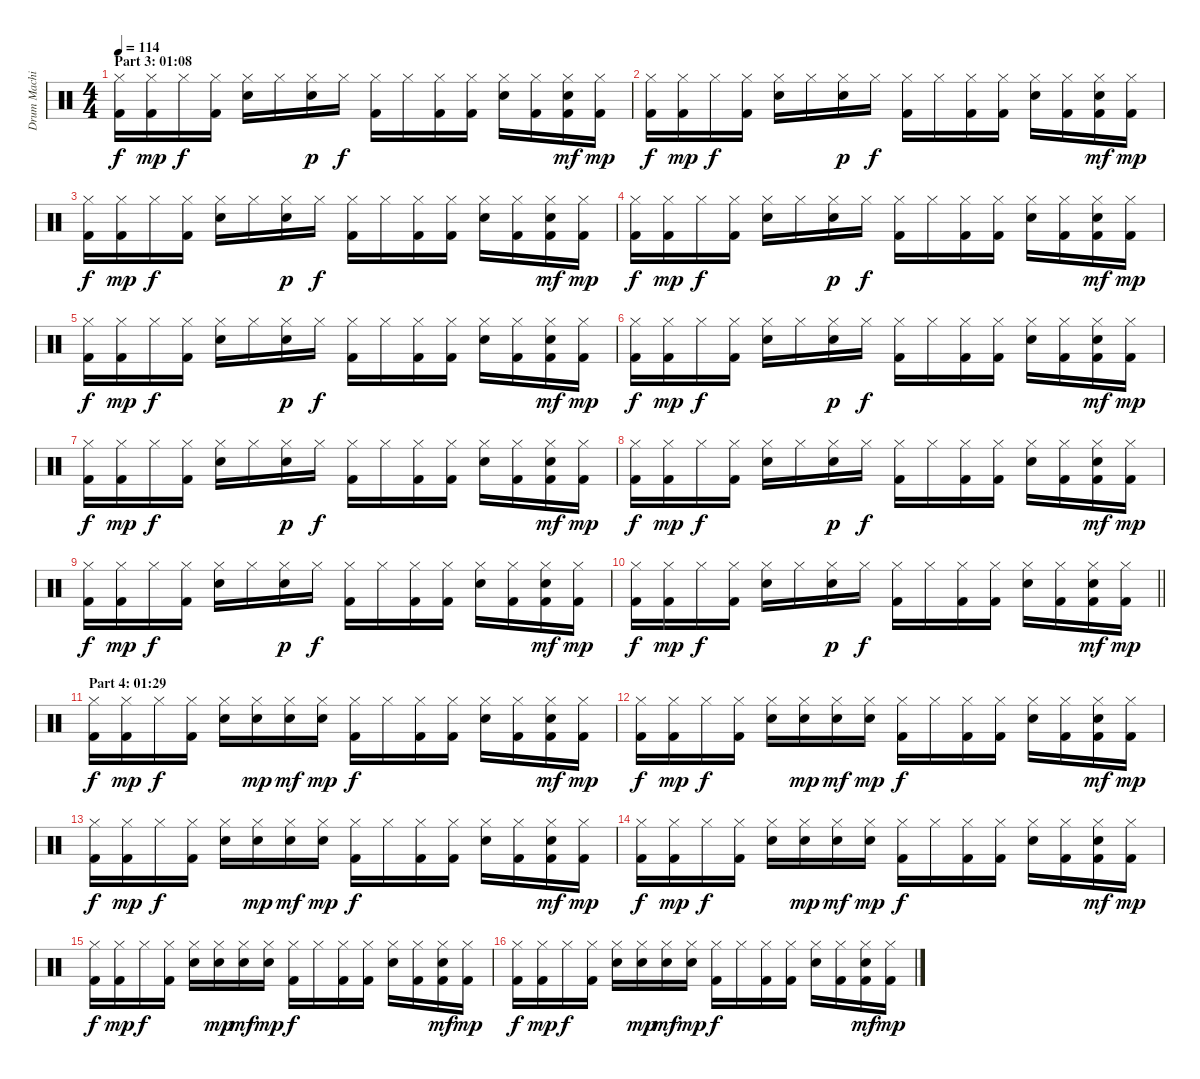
\track ("Drum Machine" "Drum Machi") {instrument percussion}
\staff {score}
\articulation defaults
\ts (4 4)
\section ("" "Part 3: 01:08")
\tempo 114
\clef neutral
\ks c
("Hi-Hat (closed)" "Kick (hit) 2").16{dy f} ("Hi-Hat (closed)" "Kick (hit) 2").16{dy mp} "Hi-Hat (closed)".16{dy f} ("Hi-Hat (closed)" "Kick (hit) 2").16 ("Hi-Hat (closed)" "Electric Snare (hit)").16 "Hi-Hat (closed)".16 ("Hi-Hat (closed)" "Electric Snare (hit)").16{dy p} "Hi-Hat (closed)".16{dy f} ("Hi-Hat (closed)" "Kick (hit) 2").16 "Hi-Hat (closed)".16 ("Hi-Hat (closed)" "Kick (hit) 2").16 ("Hi-Hat (closed)" "Kick (hit) 2").16 ("Hi-Hat (closed)" "Electric Snare (hit)").16 ("Hi-Hat (closed)" "Kick (hit) 2").16 ("Hi-Hat (closed)" "Electric Snare (hit)" "Kick (hit) 2").16{dy mf} ("Hi-Hat (closed)" "Kick (hit) 2").16{dy mp} |
("Hi-Hat (closed)" "Kick (hit) 2").16{dy f} ("Hi-Hat (closed)" "Kick (hit) 2").16{dy mp} "Hi-Hat (closed)".16{dy f} ("Hi-Hat (closed)" "Kick (hit) 2").16 ("Hi-Hat (closed)" "Electric Snare (hit)").16 "Hi-Hat (closed)".16 ("Hi-Hat (closed)" "Electric Snare (hit)").16{dy p} "Hi-Hat (closed)".16{dy f} ("Hi-Hat (closed)" "Kick (hit) 2").16 "Hi-Hat (closed)".16 ("Hi-Hat (closed)" "Kick (hit) 2").16 ("Hi-Hat (closed)" "Kick (hit) 2").16 ("Hi-Hat (closed)" "Electric Snare (hit)").16 ("Hi-Hat (closed)" "Kick (hit) 2").16 ("Hi-Hat (closed)" "Electric Snare (hit)" "Kick (hit) 2").16{dy mf} ("Hi-Hat (closed)" "Kick (hit) 2").16{dy mp} |
("Hi-Hat (closed)" "Kick (hit) 2").16{dy f} ("Hi-Hat (closed)" "Kick (hit) 2").16{dy mp} "Hi-Hat (closed)".16{dy f} ("Hi-Hat (closed)" "Kick (hit) 2").16 ("Hi-Hat (closed)" "Electric Snare (hit)").16 "Hi-Hat (closed)".16 ("Hi-Hat (closed)" "Electric Snare (hit)").16{dy p} "Hi-Hat (closed)".16{dy f} ("Hi-Hat (closed)" "Kick (hit) 2").16 "Hi-Hat (closed)".16 ("Hi-Hat (closed)" "Kick (hit) 2").16 ("Hi-Hat (closed)" "Kick (hit) 2").16 ("Hi-Hat (closed)" "Electric Snare (hit)").16 ("Hi-Hat (closed)" "Kick (hit) 2").16 ("Hi-Hat (closed)" "Electric Snare (hit)" "Kick (hit) 2").16{dy mf} ("Hi-Hat (closed)" "Kick (hit) 2").16{dy mp} |
("Hi-Hat (closed)" "Kick (hit) 2").16{dy f} ("Hi-Hat (closed)" "Kick (hit) 2").16{dy mp} "Hi-Hat (closed)".16{dy f} ("Hi-Hat (closed)" "Kick (hit) 2").16 ("Hi-Hat (closed)" "Electric Snare (hit)").16 "Hi-Hat (closed)".16 ("Hi-Hat (closed)" "Electric Snare (hit)").16{dy p} "Hi-Hat (closed)".16{dy f} ("Hi-Hat (closed)" "Kick (hit) 2").16 "Hi-Hat (closed)".16 ("Hi-Hat (closed)" "Kick (hit) 2").16 ("Hi-Hat (closed)" "Kick (hit) 2").16 ("Hi-Hat (closed)" "Electric Snare (hit)").16 ("Hi-Hat (closed)" "Kick (hit) 2").16 ("Hi-Hat (closed)" "Electric Snare (hit)" "Kick (hit) 2").16{dy mf} ("Hi-Hat (closed)" "Kick (hit) 2").16{dy mp} |
("Hi-Hat (closed)" "Kick (hit) 2").16{dy f} ("Hi-Hat (closed)" "Kick (hit) 2").16{dy mp} "Hi-Hat (closed)".16{dy f} ("Hi-Hat (closed)" "Kick (hit) 2").16 ("Hi-Hat (closed)" "Electric Snare (hit)").16 "Hi-Hat (closed)".16 ("Hi-Hat (closed)" "Electric Snare (hit)").16{dy p} "Hi-Hat (closed)".16{dy f} ("Hi-Hat (closed)" "Kick (hit) 2").16 "Hi-Hat (closed)".16 ("Hi-Hat (closed)" "Kick (hit) 2").16 ("Hi-Hat (closed)" "Kick (hit) 2").16 ("Hi-Hat (closed)" "Electric Snare (hit)").16 ("Hi-Hat (closed)" "Kick (hit) 2").16 ("Hi-Hat (closed)" "Electric Snare (hit)" "Kick (hit) 2").16{dy mf} ("Hi-Hat (closed)" "Kick (hit) 2").16{dy mp} |
("Hi-Hat (closed)" "Kick (hit) 2").16{dy f} ("Hi-Hat (closed)" "Kick (hit) 2").16{dy mp} "Hi-Hat (closed)".16{dy f} ("Hi-Hat (closed)" "Kick (hit) 2").16 ("Hi-Hat (closed)" "Electric Snare (hit)").16 "Hi-Hat (closed)".16 ("Hi-Hat (closed)" "Electric Snare (hit)").16{dy p} "Hi-Hat (closed)".16{dy f} ("Hi-Hat (closed)" "Kick (hit) 2").16 "Hi-Hat (closed)".16 ("Hi-Hat (closed)" "Kick (hit) 2").16 ("Hi-Hat (closed)" "Kick (hit) 2").16 ("Hi-Hat (closed)" "Electric Snare (hit)").16 ("Hi-Hat (closed)" "Kick (hit) 2").16 ("Hi-Hat (closed)" "Electric Snare (hit)" "Kick (hit) 2").16{dy mf} ("Hi-Hat (closed)" "Kick (hit) 2").16{dy mp} |
("Hi-Hat (closed)" "Kick (hit) 2").16{dy f} ("Hi-Hat (closed)" "Kick (hit) 2").16{dy mp} "Hi-Hat (closed)".16{dy f} ("Hi-Hat (closed)" "Kick (hit) 2").16 ("Hi-Hat (closed)" "Electric Snare (hit)").16 "Hi-Hat (closed)".16 ("Hi-Hat (closed)" "Electric Snare (hit)").16{dy p} "Hi-Hat (closed)".16{dy f} ("Hi-Hat (closed)" "Kick (hit) 2").16 "Hi-Hat (closed)".16 ("Hi-Hat (closed)" "Kick (hit) 2").16 ("Hi-Hat (closed)" "Kick (hit) 2").16 ("Hi-Hat (closed)" "Electric Snare (hit)").16 ("Hi-Hat (closed)" "Kick (hit) 2").16 ("Hi-Hat (closed)" "Electric Snare (hit)" "Kick (hit) 2").16{dy mf} ("Hi-Hat (closed)" "Kick (hit) 2").16{dy mp} |
("Hi-Hat (closed)" "Kick (hit) 2").16{dy f} ("Hi-Hat (closed)" "Kick (hit) 2").16{dy mp} "Hi-Hat (closed)".16{dy f} ("Hi-Hat (closed)" "Kick (hit) 2").16 ("Hi-Hat (closed)" "Electric Snare (hit)").16 "Hi-Hat (closed)".16 ("Hi-Hat (closed)" "Electric Snare (hit)").16{dy p} "Hi-Hat (closed)".16{dy f} ("Hi-Hat (closed)" "Kick (hit) 2").16 "Hi-Hat (closed)".16 ("Hi-Hat (closed)" "Kick (hit) 2").16 ("Hi-Hat (closed)" "Kick (hit) 2").16 ("Hi-Hat (closed)" "Electric Snare (hit)").16 ("Hi-Hat (closed)" "Kick (hit) 2").16 ("Hi-Hat (closed)" "Electric Snare (hit)" "Kick (hit) 2").16{dy mf} ("Hi-Hat (closed)" "Kick (hit) 2").16{dy mp} |
("Hi-Hat (closed)" "Kick (hit) 2").16{dy f} ("Hi-Hat (closed)" "Kick (hit) 2").16{dy mp} "Hi-Hat (closed)".16{dy f} ("Hi-Hat (closed)" "Kick (hit) 2").16 ("Hi-Hat (closed)" "Electric Snare (hit)").16 "Hi-Hat (closed)".16 ("Hi-Hat (closed)" "Electric Snare (hit)").16{dy p} "Hi-Hat (closed)".16{dy f} ("Hi-Hat (closed)" "Kick (hit) 2").16 "Hi-Hat (closed)".16 ("Hi-Hat (closed)" "Kick (hit) 2").16 ("Hi-Hat (closed)" "Kick (hit) 2").16 ("Hi-Hat (closed)" "Electric Snare (hit)").16 ("Hi-Hat (closed)" "Kick (hit) 2").16 ("Hi-Hat (closed)" "Electric Snare (hit)" "Kick (hit) 2").16{dy mf} ("Hi-Hat (closed)" "Kick (hit) 2").16{dy mp} |
\barLineRight lightlight
("Hi-Hat (closed)" "Kick (hit) 2").16{dy f} ("Hi-Hat (closed)" "Kick (hit) 2").16{dy mp} "Hi-Hat (closed)".16{dy f} ("Hi-Hat (closed)" "Kick (hit) 2").16 ("Hi-Hat (closed)" "Electric Snare (hit)").16 "Hi-Hat (closed)".16 ("Hi-Hat (closed)" "Electric Snare (hit)").16{dy p} "Hi-Hat (closed)".16{dy f} ("Hi-Hat (closed)" "Kick (hit) 2").16 "Hi-Hat (closed)".16 ("Hi-Hat (closed)" "Kick (hit) 2").16 ("Hi-Hat (closed)" "Kick (hit) 2").16 ("Hi-Hat (closed)" "Electric Snare (hit)").16 ("Hi-Hat (closed)" "Kick (hit) 2").16 ("Hi-Hat (closed)" "Electric Snare (hit)" "Kick (hit) 2").16{dy mf} ("Hi-Hat (closed)" "Kick (hit) 2").16{dy mp} |
\section ("" "Part 4: 01:29")
("Hi-Hat (closed)" "Kick (hit) 2").16{dy f} ("Hi-Hat (closed)" "Kick (hit) 2").16{dy mp} "Hi-Hat (closed)".16{dy f} ("Hi-Hat (closed)" "Kick (hit) 2").16 ("Hi-Hat (closed)" "Electric Snare (hit)").16 ("Hi-Hat (closed)" "Electric Snare (hit)").16{dy mp} ("Hi-Hat (closed)" "Electric Snare (hit)").16{dy mf} ("Hi-Hat (closed)" "Electric Snare (hit)").16{dy mp} ("Hi-Hat (closed)" "Kick (hit) 2").16{dy f} "Hi-Hat (closed)".16 ("Hi-Hat (closed)" "Kick (hit) 2").16 ("Hi-Hat (closed)" "Kick (hit) 2").16 ("Hi-Hat (closed)" "Electric Snare (hit)").16 ("Hi-Hat (closed)" "Kick (hit) 2").16 ("Hi-Hat (closed)" "Electric Snare (hit)" "Kick (hit) 2").16{dy mf} ("Hi-Hat (closed)" "Kick (hit) 2").16{dy mp} |
("Hi-Hat (closed)" "Kick (hit) 2").16{dy f} ("Hi-Hat (closed)" "Kick (hit) 2").16{dy mp} "Hi-Hat (closed)".16{dy f} ("Hi-Hat (closed)" "Kick (hit) 2").16 ("Hi-Hat (closed)" "Electric Snare (hit)").16 ("Hi-Hat (closed)" "Electric Snare (hit)").16{dy mp} ("Hi-Hat (closed)" "Electric Snare (hit)").16{dy mf} ("Hi-Hat (closed)" "Electric Snare (hit)").16{dy mp} ("Hi-Hat (closed)" "Kick (hit) 2").16{dy f} "Hi-Hat (closed)".16 ("Hi-Hat (closed)" "Kick (hit) 2").16 ("Hi-Hat (closed)" "Kick (hit) 2").16 ("Hi-Hat (closed)" "Electric Snare (hit)").16 ("Hi-Hat (closed)" "Kick (hit) 2").16 ("Hi-Hat (closed)" "Electric Snare (hit)" "Kick (hit) 2").16{dy mf} ("Hi-Hat (closed)" "Kick (hit) 2").16{dy mp} |
("Hi-Hat (closed)" "Kick (hit) 2").16{dy f} ("Hi-Hat (closed)" "Kick (hit) 2").16{dy mp} "Hi-Hat (closed)".16{dy f} ("Hi-Hat (closed)" "Kick (hit) 2").16 ("Hi-Hat (closed)" "Electric Snare (hit)").16 ("Hi-Hat (closed)" "Electric Snare (hit)").16{dy mp} ("Hi-Hat (closed)" "Electric Snare (hit)").16{dy mf} ("Hi-Hat (closed)" "Electric Snare (hit)").16{dy mp} ("Hi-Hat (closed)" "Kick (hit) 2").16{dy f} "Hi-Hat (closed)".16 ("Hi-Hat (closed)" "Kick (hit) 2").16 ("Hi-Hat (closed)" "Kick (hit) 2").16 ("Hi-Hat (closed)" "Electric Snare (hit)").16 ("Hi-Hat (closed)" "Kick (hit) 2").16 ("Hi-Hat (closed)" "Electric Snare (hit)" "Kick (hit) 2").16{dy mf} ("Hi-Hat (closed)" "Kick (hit) 2").16{dy mp} |
("Hi-Hat (closed)" "Kick (hit) 2").16{dy f} ("Hi-Hat (closed)" "Kick (hit) 2").16{dy mp} "Hi-Hat (closed)".16{dy f} ("Hi-Hat (closed)" "Kick (hit) 2").16 ("Hi-Hat (closed)" "Electric Snare (hit)").16 ("Hi-Hat (closed)" "Electric Snare (hit)").16{dy mp} ("Hi-Hat (closed)" "Electric Snare (hit)").16{dy mf} ("Hi-Hat (closed)" "Electric Snare (hit)").16{dy mp} ("Hi-Hat (closed)" "Kick (hit) 2").16{dy f} "Hi-Hat (closed)".16 ("Hi-Hat (closed)" "Kick (hit) 2").16 ("Hi-Hat (closed)" "Kick (hit) 2").16 ("Hi-Hat (closed)" "Electric Snare (hit)").16 ("Hi-Hat (closed)" "Kick (hit) 2").16 ("Hi-Hat (closed)" "Electric Snare (hit)" "Kick (hit) 2").16{dy mf} ("Hi-Hat (closed)" "Kick (hit) 2").16{dy mp} |
("Hi-Hat (closed)" "Kick (hit) 2").16{dy f} ("Hi-Hat (closed)" "Kick (hit) 2").16{dy mp} "Hi-Hat (closed)".16{dy f} ("Hi-Hat (closed)" "Kick (hit) 2").16 ("Hi-Hat (closed)" "Electric Snare (hit)").16 ("Hi-Hat (closed)" "Electric Snare (hit)").16{dy mp} ("Hi-Hat (closed)" "Electric Snare (hit)").16{dy mf} ("Hi-Hat (closed)" "Electric Snare (hit)").16{dy mp} ("Hi-Hat (closed)" "Kick (hit) 2").16{dy f} "Hi-Hat (closed)".16 ("Hi-Hat (closed)" "Kick (hit) 2").16 ("Hi-Hat (closed)" "Kick (hit) 2").16 ("Hi-Hat (closed)" "Electric Snare (hit)").16 ("Hi-Hat (closed)" "Kick (hit) 2").16 ("Hi-Hat (closed)" "Electric Snare (hit)" "Kick (hit) 2").16{dy mf} ("Hi-Hat (closed)" "Kick (hit) 2").16{dy mp} |
("Hi-Hat (closed)" "Kick (hit) 2").16{dy f} ("Hi-Hat (closed)" "Kick (hit) 2").16{dy mp} "Hi-Hat (closed)".16{dy f} ("Hi-Hat (closed)" "Kick (hit) 2").16 ("Hi-Hat (closed)" "Electric Snare (hit)").16 ("Hi-Hat (closed)" "Electric Snare (hit)").16{dy mp} ("Hi-Hat (closed)" "Electric Snare (hit)").16{dy mf} ("Hi-Hat (closed)" "Electric Snare (hit)").16{dy mp} ("Hi-Hat (closed)" "Kick (hit) 2").16{dy f} "Hi-Hat (closed)".16 ("Hi-Hat (closed)" "Kick (hit) 2").16 ("Hi-Hat (closed)" "Kick (hit) 2").16 ("Hi-Hat (closed)" "Electric Snare (hit)").16 ("Hi-Hat (closed)" "Kick (hit) 2").16 ("Hi-Hat (closed)" "Electric Snare (hit)" "Kick (hit) 2").16{dy mf} ("Hi-Hat (closed)" "Kick (hit) 2").16{dy mp}
